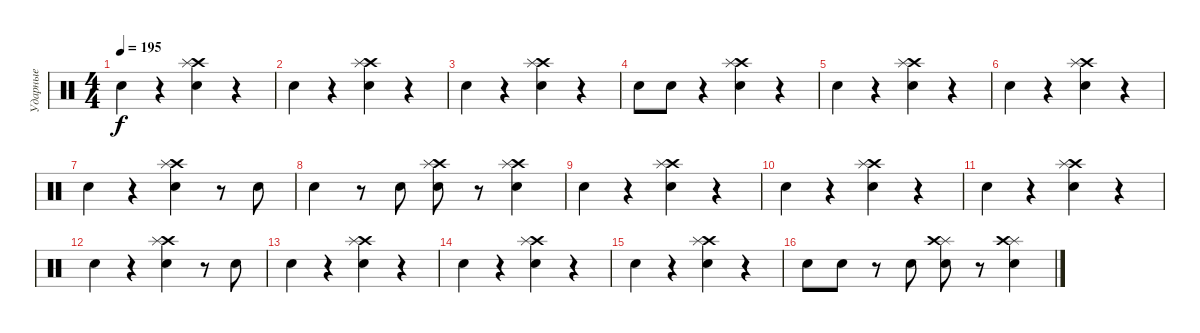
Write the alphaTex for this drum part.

\track ("Ударные" "Ударные") {instrument percussion}
\staff {score}
\articulation defaults
\ts (4 4)
\tempo 195
\clef neutral
\ks c "Snare (hit) 2".4{dy f}
r.4 ("Snare (hit) 2" "Crash high (hit)" "Splash (hit)").4 r.4 |
"Snare (hit) 2".4 r.4 ("Snare (hit) 2" "Crash high (hit)" "Splash (hit)").4 r.4 |
"Snare (hit) 2".4 r.4 ("Snare (hit) 2" "Crash high (hit)" "Splash (hit)").4 r.4 |
"Snare (hit) 2".8 "Snare (hit) 2".8 r.4 ("Snare (hit) 2" "Crash high (hit)" "Splash (hit)").4 r.4 |
"Snare (hit) 2".4 r.4 ("Snare (hit) 2" "Crash high (hit)" "Splash (hit)").4 r.4 |
"Snare (hit) 2".4 r.4 ("Snare (hit) 2" "Crash high (hit)" "Splash (hit)").4 r.4 |
"Snare (hit) 2".4 r.4 ("Snare (hit) 2" "Crash high (hit)" "Splash (hit)").4 r.8 "Snare (hit) 2".8 |
"Snare (hit) 2".4 r.8 "Snare (hit) 2".8 ("Snare (hit) 2" "Crash high (hit)" "Splash (hit)").8 r.8 ("Snare (hit) 2" "Crash high (hit)" "Splash (hit)").4 |
"Snare (hit) 2".4 r.4 ("Snare (hit) 2" "Crash high (hit)" "Splash (hit)").4 r.4 |
"Snare (hit) 2".4 r.4 ("Snare (hit) 2" "Crash high (hit)" "Splash (hit)").4 r.4 |
"Snare (hit) 2".4 r.4 ("Snare (hit) 2" "Crash high (hit)" "Splash (hit)").4 r.4 |
"Snare (hit) 2".4 r.4 ("Snare (hit) 2" "Crash high (hit)" "Splash (hit)").4 r.8 "Snare (hit) 2".8 |
"Snare (hit) 2".4 r.4 ("Snare (hit) 2" "Crash high (hit)" "Splash (hit)").4 r.4 |
"Snare (hit) 2".4 r.4 ("Snare (hit) 2" "Crash high (hit)" "Splash (hit)").4 r.4 |
"Snare (hit) 2".4 r.4 ("Snare (hit) 2" "Crash high (hit)" "Splash (hit)").4 r.4 |
"Snare (hit) 2".8 "Snare (hit) 2".8 r.8 "Snare (hit) 2".8 ("Snare (hit) 2" "Splash (hit)" "Crash high (hit)").8 r.8 ("Snare (hit) 2" "Splash (hit)" "Crash high (hit)").4
